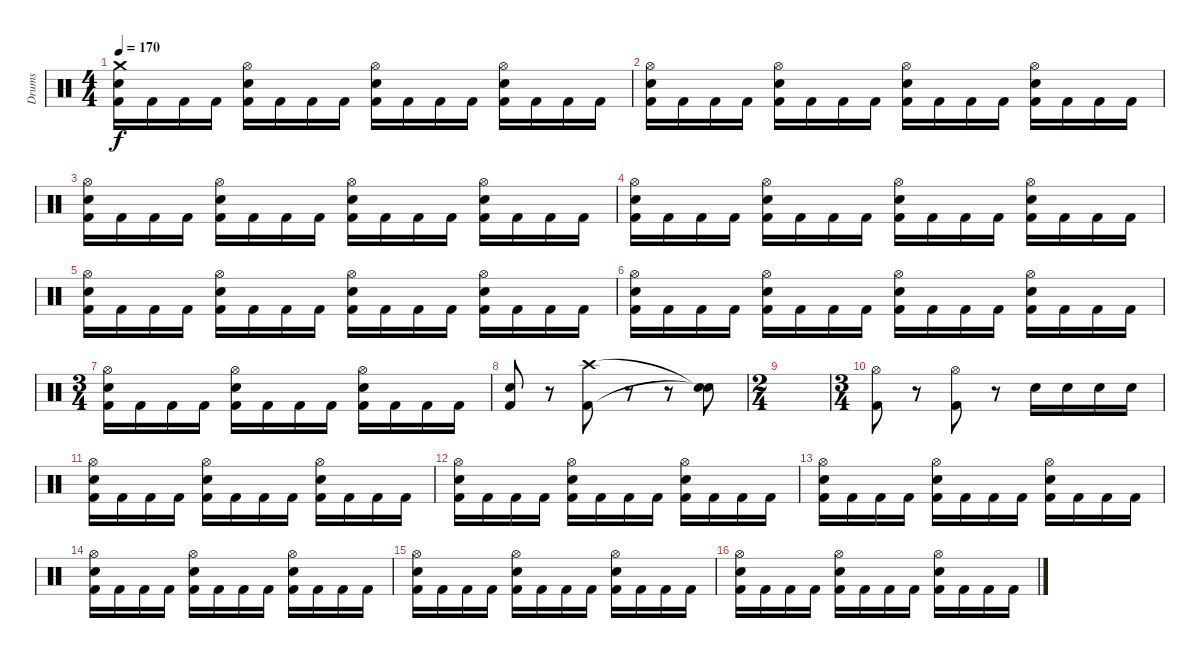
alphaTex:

\track ("Drums" "Drums") {instrument percussion}
\staff {score}
\articulation defaults
\ts (4 4)
\tempo 170
\clef neutral
\ks c
("Crash medium (hit)" "Electric Snare (hit)" "Kick (hit) 2").16{dy f} "Kick (hit) 2".16 "Kick (hit) 2".16 "Kick (hit) 2".16 ("Hi-Hat (open)" "Electric Snare (hit)" "Kick (hit) 2").16 "Kick (hit) 2".16 "Kick (hit) 2".16 "Kick (hit) 2".16 ("Hi-Hat (open)" "Electric Snare (hit)" "Kick (hit) 2").16 "Kick (hit) 2".16 "Kick (hit) 2".16 "Kick (hit) 2".16 ("Hi-Hat (open)" "Electric Snare (hit)" "Kick (hit) 2").16 "Kick (hit) 2".16 "Kick (hit) 2".16 "Kick (hit) 2".16 |
("Hi-Hat (open)" "Electric Snare (hit)" "Kick (hit) 2").16 "Kick (hit) 2".16 "Kick (hit) 2".16 "Kick (hit) 2".16 ("Hi-Hat (open)" "Electric Snare (hit)" "Kick (hit) 2").16 "Kick (hit) 2".16 "Kick (hit) 2".16 "Kick (hit) 2".16 ("Hi-Hat (open)" "Electric Snare (hit)" "Kick (hit) 2").16 "Kick (hit) 2".16 "Kick (hit) 2".16 "Kick (hit) 2".16 ("Hi-Hat (open)" "Electric Snare (hit)" "Kick (hit) 2").16 "Kick (hit) 2".16 "Kick (hit) 2".16 "Kick (hit) 2".16 |
("Hi-Hat (open)" "Electric Snare (hit)" "Kick (hit) 2").16 "Kick (hit) 2".16 "Kick (hit) 2".16 "Kick (hit) 2".16 ("Hi-Hat (open)" "Electric Snare (hit)" "Kick (hit) 2").16 "Kick (hit) 2".16 "Kick (hit) 2".16 "Kick (hit) 2".16 ("Hi-Hat (open)" "Electric Snare (hit)" "Kick (hit) 2").16 "Kick (hit) 2".16 "Kick (hit) 2".16 "Kick (hit) 2".16 ("Hi-Hat (open)" "Electric Snare (hit)" "Kick (hit) 2").16 "Kick (hit) 2".16 "Kick (hit) 2".16 "Kick (hit) 2".16 |
("Hi-Hat (open)" "Electric Snare (hit)" "Kick (hit) 2").16 "Kick (hit) 2".16 "Kick (hit) 2".16 "Kick (hit) 2".16 ("Hi-Hat (open)" "Electric Snare (hit)" "Kick (hit) 2").16 "Kick (hit) 2".16 "Kick (hit) 2".16 "Kick (hit) 2".16 ("Hi-Hat (open)" "Electric Snare (hit)" "Kick (hit) 2").16 "Kick (hit) 2".16 "Kick (hit) 2".16 "Kick (hit) 2".16 ("Hi-Hat (open)" "Electric Snare (hit)" "Kick (hit) 2").16 "Kick (hit) 2".16 "Kick (hit) 2".16 "Kick (hit) 2".16 |
("Hi-Hat (open)" "Electric Snare (hit)" "Kick (hit) 2").16 "Kick (hit) 2".16 "Kick (hit) 2".16 "Kick (hit) 2".16 ("Hi-Hat (open)" "Electric Snare (hit)" "Kick (hit) 2").16 "Kick (hit) 2".16 "Kick (hit) 2".16 "Kick (hit) 2".16 ("Hi-Hat (open)" "Electric Snare (hit)" "Kick (hit) 2").16 "Kick (hit) 2".16 "Kick (hit) 2".16 "Kick (hit) 2".16 ("Hi-Hat (open)" "Electric Snare (hit)" "Kick (hit) 2").16 "Kick (hit) 2".16 "Kick (hit) 2".16 "Kick (hit) 2".16 |
("Hi-Hat (open)" "Electric Snare (hit)" "Kick (hit) 2").16 "Kick (hit) 2".16 "Kick (hit) 2".16 "Kick (hit) 2".16 ("Hi-Hat (open)" "Electric Snare (hit)" "Kick (hit) 2").16 "Kick (hit) 2".16 "Kick (hit) 2".16 "Kick (hit) 2".16 ("Hi-Hat (open)" "Electric Snare (hit)" "Kick (hit) 2").16 "Kick (hit) 2".16 "Kick (hit) 2".16 "Kick (hit) 2".16 ("Hi-Hat (open)" "Electric Snare (hit)" "Kick (hit) 2").16 "Kick (hit) 2".16 "Kick (hit) 2".16 "Kick (hit) 2".16 |
\ts (3 4)
("Hi-Hat (open)" "Electric Snare (hit)" "Kick (hit) 2").16 "Kick (hit) 2".16 "Kick (hit) 2".16 "Kick (hit) 2".16 ("Hi-Hat (open)" "Electric Snare (hit)" "Kick (hit) 2").16 "Kick (hit) 2".16 "Kick (hit) 2".16 "Kick (hit) 2".16 ("Hi-Hat (open)" "Electric Snare (hit)" "Kick (hit) 2").16 "Kick (hit) 2".16 "Kick (hit) 2".16 "Kick (hit) 2".16 |
("Electric Snare (hit)" "Kick (hit) 2").8 r.8 ("Crash high (hit)" "Kick (hit) 2").8 r.8 r.8 ("Snare (hit)"{t} "Snare (hit)"{t}).8 |
\ts (2 4)
|
\ts (3 4)
("Hi-Hat (open)" "Kick (hit) 2").8 r.8 ("Hi-Hat (open)" "Kick (hit) 2").8 r.8 "Electric Snare (hit)".16 "Electric Snare (hit)".16 "Electric Snare (hit)".16 "Electric Snare (hit)".16 |
("Hi-Hat (open)" "Electric Snare (hit)" "Kick (hit) 2").16 "Kick (hit) 2".16 "Kick (hit) 2".16 "Kick (hit) 2".16 ("Hi-Hat (open)" "Electric Snare (hit)" "Kick (hit) 2").16 "Kick (hit) 2".16 "Kick (hit) 2".16 "Kick (hit) 2".16 ("Hi-Hat (open)" "Electric Snare (hit)" "Kick (hit) 2").16 "Kick (hit) 2".16 "Kick (hit) 2".16 "Kick (hit) 2".16 |
("Hi-Hat (open)" "Electric Snare (hit)" "Kick (hit) 2").16 "Kick (hit) 2".16 "Kick (hit) 2".16 "Kick (hit) 2".16 ("Hi-Hat (open)" "Electric Snare (hit)" "Kick (hit) 2").16 "Kick (hit) 2".16 "Kick (hit) 2".16 "Kick (hit) 2".16 ("Hi-Hat (open)" "Electric Snare (hit)" "Kick (hit) 2").16 "Kick (hit) 2".16 "Kick (hit) 2".16 "Kick (hit) 2".16 |
("Hi-Hat (open)" "Electric Snare (hit)" "Kick (hit) 2").16 "Kick (hit) 2".16 "Kick (hit) 2".16 "Kick (hit) 2".16 ("Hi-Hat (open)" "Electric Snare (hit)" "Kick (hit) 2").16 "Kick (hit) 2".16 "Kick (hit) 2".16 "Kick (hit) 2".16 ("Hi-Hat (open)" "Electric Snare (hit)" "Kick (hit) 2").16 "Kick (hit) 2".16 "Kick (hit) 2".16 "Kick (hit) 2".16 |
("Hi-Hat (open)" "Electric Snare (hit)" "Kick (hit) 2").16 "Kick (hit) 2".16 "Kick (hit) 2".16 "Kick (hit) 2".16 ("Hi-Hat (open)" "Electric Snare (hit)" "Kick (hit) 2").16 "Kick (hit) 2".16 "Kick (hit) 2".16 "Kick (hit) 2".16 ("Hi-Hat (open)" "Electric Snare (hit)" "Kick (hit) 2").16 "Kick (hit) 2".16 "Kick (hit) 2".16 "Kick (hit) 2".16 |
("Hi-Hat (open)" "Electric Snare (hit)" "Kick (hit) 2").16 "Kick (hit) 2".16 "Kick (hit) 2".16 "Kick (hit) 2".16 ("Hi-Hat (open)" "Electric Snare (hit)" "Kick (hit) 2").16 "Kick (hit) 2".16 "Kick (hit) 2".16 "Kick (hit) 2".16 ("Hi-Hat (open)" "Electric Snare (hit)" "Kick (hit) 2").16 "Kick (hit) 2".16 "Kick (hit) 2".16 "Kick (hit) 2".16 |
("Hi-Hat (open)" "Electric Snare (hit)" "Kick (hit) 2").16 "Kick (hit) 2".16 "Kick (hit) 2".16 "Kick (hit) 2".16 ("Hi-Hat (open)" "Electric Snare (hit)" "Kick (hit) 2").16 "Kick (hit) 2".16 "Kick (hit) 2".16 "Kick (hit) 2".16 ("Hi-Hat (open)" "Electric Snare (hit)" "Kick (hit) 2").16 "Kick (hit) 2".16 "Kick (hit) 2".16 "Kick (hit) 2".16
